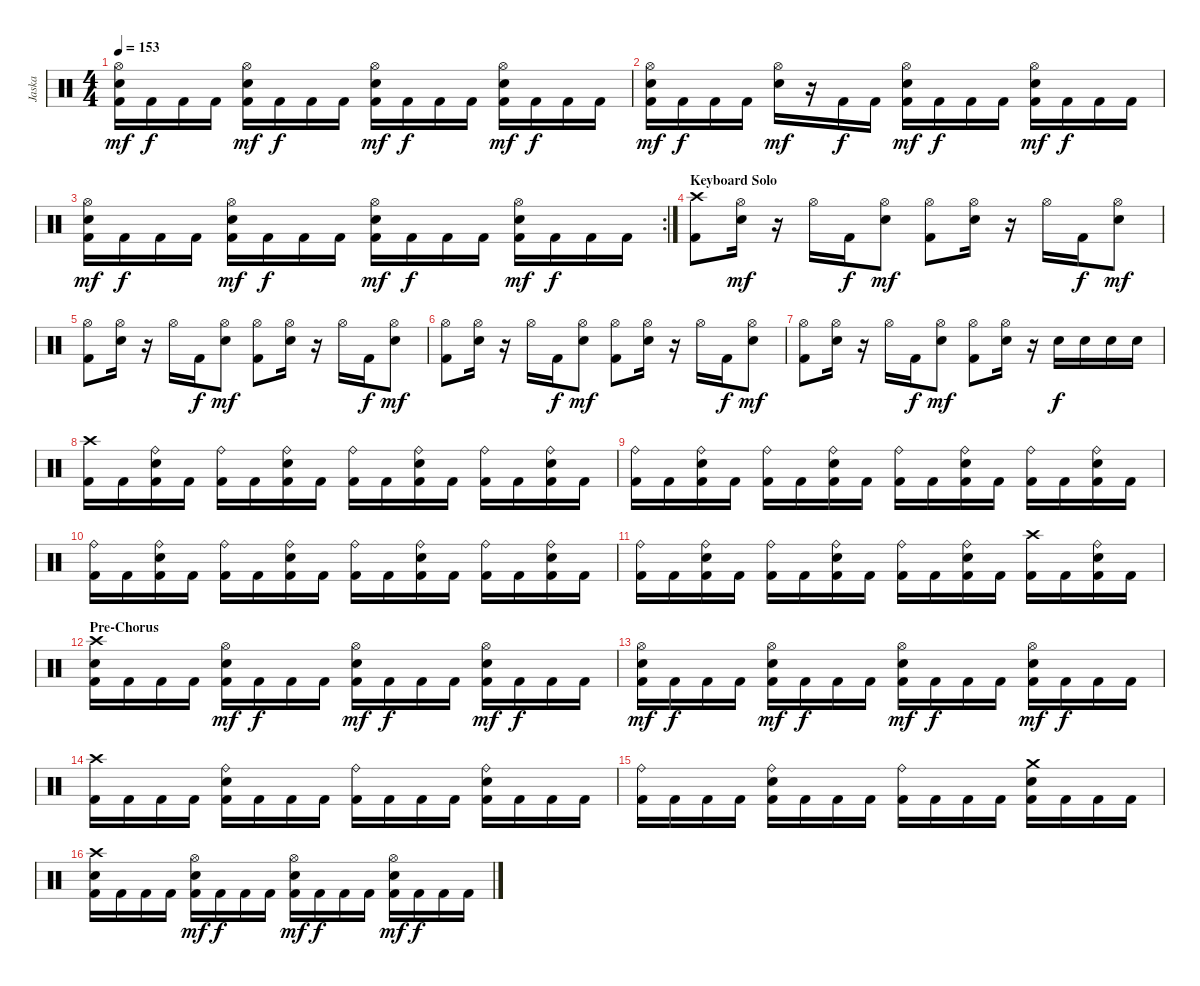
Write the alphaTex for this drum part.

\track ("Jaska" "Jaska") {instrument percussion}
\staff {score}
\articulation defaults
\ts (4 4)
\tempo 153
\clef neutral
\ks c
("Hi-Hat (open)" "Electric Snare (hit)" "Kick (hit) 2").16{dy mf} "Kick (hit) 2".16{dy f} "Kick (hit) 2".16 "Kick (hit) 2".16 ("Hi-Hat (open)" "Electric Snare (hit)" "Kick (hit) 2").16{dy mf} "Kick (hit) 2".16{dy f} "Kick (hit) 2".16 "Kick (hit) 2".16 ("Hi-Hat (open)" "Electric Snare (hit)" "Kick (hit) 2").16{dy mf} "Kick (hit) 2".16{dy f} "Kick (hit) 2".16 "Kick (hit) 2".16 ("Hi-Hat (open)" "Electric Snare (hit)" "Kick (hit) 2").16{dy mf} "Kick (hit) 2".16{dy f} "Kick (hit) 2".16 "Kick (hit) 2".16 |
("Hi-Hat (open)" "Electric Snare (hit)" "Kick (hit) 2").16{dy mf} "Kick (hit) 2".16{dy f} "Kick (hit) 2".16 "Kick (hit) 2".16 ("Hi-Hat (open)" "Electric Snare (hit)").16{dy mf} r.16 "Kick (hit) 2".16{dy f} "Kick (hit) 2".16 ("Hi-Hat (open)" "Electric Snare (hit)" "Kick (hit) 2").16{dy mf} "Kick (hit) 2".16{dy f} "Kick (hit) 2".16 "Kick (hit) 2".16 ("Hi-Hat (open)" "Electric Snare (hit)" "Kick (hit) 2").16{dy mf} "Kick (hit) 2".16{dy f} "Kick (hit) 2".16 "Kick (hit) 2".16 |
\rc 2
("Hi-Hat (open)" "Electric Snare (hit)" "Kick (hit) 2").16{dy mf} "Kick (hit) 2".16{dy f} "Kick (hit) 2".16 "Kick (hit) 2".16 ("Hi-Hat (open)" "Electric Snare (hit)" "Kick (hit) 2").16{dy mf} "Kick (hit) 2".16{dy f} "Kick (hit) 2".16 "Kick (hit) 2".16 ("Hi-Hat (open)" "Electric Snare (hit)" "Kick (hit) 2").16{dy mf} "Kick (hit) 2".16{dy f} "Kick (hit) 2".16 "Kick (hit) 2".16 ("Hi-Hat (open)" "Electric Snare (hit)" "Kick (hit) 2").16{dy mf} "Kick (hit) 2".16{dy f} "Kick (hit) 2".16 "Kick (hit) 2".16 |
\section ("" "Keyboard Solo")
("Crash high (hit)" "Kick (hit) 2").8 ("Hi-Hat (open)" "Electric Snare (hit)").16{dy mf} r.16 "Hi-Hat (open)".16 "Kick (hit) 2".16{dy f} ("Hi-Hat (open)" "Electric Snare (hit)").8{dy mf} ("Hi-Hat (open)" "Kick (hit) 2").8 ("Hi-Hat (open)" "Electric Snare (hit)").16 r.16 "Hi-Hat (open)".16 "Kick (hit) 2".16{dy f} ("Hi-Hat (open)" "Electric Snare (hit)").8{dy mf} |
("Hi-Hat (open)" "Kick (hit) 2").8 ("Hi-Hat (open)" "Electric Snare (hit)").16 r.16 "Hi-Hat (open)".16 "Kick (hit) 2".16{dy f} ("Hi-Hat (open)" "Electric Snare (hit)").8{dy mf} ("Hi-Hat (open)" "Kick (hit) 2").8 ("Hi-Hat (open)" "Electric Snare (hit)").16 r.16 "Hi-Hat (open)".16 "Kick (hit) 2".16{dy f} ("Hi-Hat (open)" "Electric Snare (hit)").8{dy mf} |
("Hi-Hat (open)" "Kick (hit) 2").8 ("Hi-Hat (open)" "Electric Snare (hit)").16 r.16 "Hi-Hat (open)".16 "Kick (hit) 2".16{dy f} ("Hi-Hat (open)" "Electric Snare (hit)").8{dy mf} ("Hi-Hat (open)" "Kick (hit) 2").8 ("Hi-Hat (open)" "Electric Snare (hit)").16 r.16 "Hi-Hat (open)".16 "Kick (hit) 2".16{dy f} ("Hi-Hat (open)" "Electric Snare (hit)").8{dy mf} |
("Hi-Hat (open)" "Kick (hit) 2").8 ("Hi-Hat (open)" "Electric Snare (hit)").16 r.16 "Hi-Hat (open)".16 "Kick (hit) 2".16{dy f} ("Hi-Hat (open)" "Electric Snare (hit)").8{dy mf} ("Hi-Hat (open)" "Kick (hit) 2").8 ("Hi-Hat (open)" "Electric Snare (hit)").16 r.16 "Electric Snare (hit)".16{dy f} "Electric Snare (hit)".16 "Electric Snare (hit)".16 "Electric Snare (hit)".16 |
("Crash high (hit)" "Kick (hit) 2").16 "Kick (hit) 2".16 ("Ride (bell)" "Electric Snare (hit)" "Kick (hit) 2").16 "Kick (hit) 2".16 ("Ride (bell)" "Kick (hit) 2").16 "Kick (hit) 2".16 ("Ride (bell)" "Electric Snare (hit)" "Kick (hit) 2").16 "Kick (hit) 2".16 ("Ride (bell)" "Kick (hit) 2").16 "Kick (hit) 2".16 ("Ride (bell)" "Electric Snare (hit)" "Kick (hit) 2").16 "Kick (hit) 2".16 ("Ride (bell)" "Kick (hit) 2").16 "Kick (hit) 2".16 ("Ride (bell)" "Electric Snare (hit)" "Kick (hit) 2").16 "Kick (hit) 2".16 |
("Ride (bell)" "Kick (hit) 2").16 "Kick (hit) 2".16 ("Ride (bell)" "Electric Snare (hit)" "Kick (hit) 2").16 "Kick (hit) 2".16 ("Ride (bell)" "Kick (hit) 2").16 "Kick (hit) 2".16 ("Ride (bell)" "Electric Snare (hit)" "Kick (hit) 2").16 "Kick (hit) 2".16 ("Ride (bell)" "Kick (hit) 2").16 "Kick (hit) 2".16 ("Ride (bell)" "Electric Snare (hit)" "Kick (hit) 2").16 "Kick (hit) 2".16 ("Ride (bell)" "Kick (hit) 2").16 "Kick (hit) 2".16 ("Ride (bell)" "Electric Snare (hit)" "Kick (hit) 2").16 "Kick (hit) 2".16 |
("Ride (bell)" "Kick (hit) 2").16 "Kick (hit) 2".16 ("Ride (bell)" "Electric Snare (hit)" "Kick (hit) 2").16 "Kick (hit) 2".16 ("Ride (bell)" "Kick (hit) 2").16 "Kick (hit) 2".16 ("Ride (bell)" "Electric Snare (hit)" "Kick (hit) 2").16 "Kick (hit) 2".16 ("Ride (bell)" "Kick (hit) 2").16 "Kick (hit) 2".16 ("Ride (bell)" "Electric Snare (hit)" "Kick (hit) 2").16 "Kick (hit) 2".16 ("Ride (bell)" "Kick (hit) 2").16 "Kick (hit) 2".16 ("Ride (bell)" "Electric Snare (hit)" "Kick (hit) 2").16 "Kick (hit) 2".16 |
("Ride (bell)" "Kick (hit) 2").16 "Kick (hit) 2".16 ("Ride (bell)" "Electric Snare (hit)" "Kick (hit) 2").16 "Kick (hit) 2".16 ("Ride (bell)" "Kick (hit) 2").16 "Kick (hit) 2".16 ("Ride (bell)" "Electric Snare (hit)" "Kick (hit) 2").16 "Kick (hit) 2".16 ("Ride (bell)" "Kick (hit) 2").16 "Kick (hit) 2".16 ("Ride (bell)" "Electric Snare (hit)" "Kick (hit) 2").16 "Kick (hit) 2".16 ("Crash high (hit)" "Kick (hit) 2").16 "Kick (hit) 2".16 ("Ride (bell)" "Electric Snare (hit)" "Kick (hit) 2").16 "Kick (hit) 2".16 |
\section ("" "Pre-Chorus")
("Crash high (hit)" "Electric Snare (hit)" "Kick (hit) 2").16 "Kick (hit) 2".16 "Kick (hit) 2".16 "Kick (hit) 2".16 ("Hi-Hat (open)" "Electric Snare (hit)" "Kick (hit) 2").16{dy mf} "Kick (hit) 2".16{dy f} "Kick (hit) 2".16 "Kick (hit) 2".16 ("Hi-Hat (open)" "Electric Snare (hit)" "Kick (hit) 2").16{dy mf} "Kick (hit) 2".16{dy f} "Kick (hit) 2".16 "Kick (hit) 2".16 ("Hi-Hat (open)" "Electric Snare (hit)" "Kick (hit) 2").16{dy mf} "Kick (hit) 2".16{dy f} "Kick (hit) 2".16 "Kick (hit) 2".16 |
("Hi-Hat (open)" "Electric Snare (hit)" "Kick (hit) 2").16{dy mf} "Kick (hit) 2".16{dy f} "Kick (hit) 2".16 "Kick (hit) 2".16 ("Hi-Hat (open)" "Electric Snare (hit)" "Kick (hit) 2").16{dy mf} "Kick (hit) 2".16{dy f} "Kick (hit) 2".16 "Kick (hit) 2".16 ("Hi-Hat (open)" "Electric Snare (hit)" "Kick (hit) 2").16{dy mf} "Kick (hit) 2".16{dy f} "Kick (hit) 2".16 "Kick (hit) 2".16 ("Hi-Hat (open)" "Electric Snare (hit)" "Kick (hit) 2").16{dy mf} "Kick (hit) 2".16{dy f} "Kick (hit) 2".16 "Kick (hit) 2".16 |
("Crash high (hit)" "Kick (hit) 2").16 "Kick (hit) 2".16 "Kick (hit) 2".16 "Kick (hit) 2".16 ("Ride (bell)" "Electric Snare (hit)" "Kick (hit) 2").16 "Kick (hit) 2".16 "Kick (hit) 2".16 "Kick (hit) 2".16 ("Ride (bell)" "Kick (hit) 2").16 "Kick (hit) 2".16 "Kick (hit) 2".16 "Kick (hit) 2".16 ("Ride (bell)" "Electric Snare (hit)" "Kick (hit) 2").16 "Kick (hit) 2".16 "Kick (hit) 2".16 "Kick (hit) 2".16 |
("Ride (bell)" "Kick (hit) 2").16 "Kick (hit) 2".16 "Kick (hit) 2".16 "Kick (hit) 2".16 ("Ride (bell)" "Electric Snare (hit)" "Kick (hit) 2").16 "Kick (hit) 2".16 "Kick (hit) 2".16 "Kick (hit) 2".16 ("Ride (bell)" "Kick (hit) 2").16 "Kick (hit) 2".16 "Kick (hit) 2".16 "Kick (hit) 2".16 ("Crash medium (hit)" "Electric Snare (hit)" "Kick (hit) 2").16 "Kick (hit) 2".16 "Kick (hit) 2".16 "Kick (hit) 2".16 |
("Crash high (hit)" "Electric Snare (hit)" "Kick (hit) 2").16 "Kick (hit) 2".16 "Kick (hit) 2".16 "Kick (hit) 2".16 ("Hi-Hat (open)" "Electric Snare (hit)" "Kick (hit) 2").16{dy mf} "Kick (hit) 2".16{dy f} "Kick (hit) 2".16 "Kick (hit) 2".16 ("Hi-Hat (open)" "Electric Snare (hit)" "Kick (hit) 2").16{dy mf} "Kick (hit) 2".16{dy f} "Kick (hit) 2".16 "Kick (hit) 2".16 ("Hi-Hat (open)" "Electric Snare (hit)" "Kick (hit) 2").16{dy mf} "Kick (hit) 2".16{dy f} "Kick (hit) 2".16 "Kick (hit) 2".16
